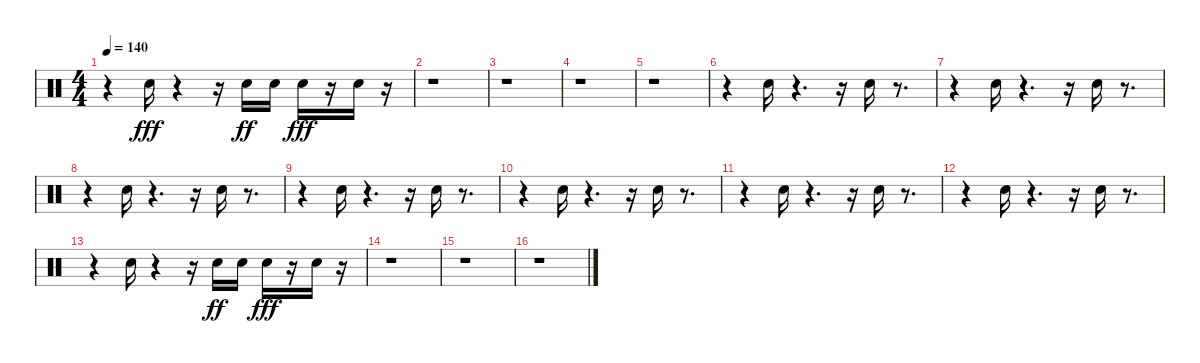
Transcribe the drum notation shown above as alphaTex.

\track "" {instrument percussion}
\staff {score}
\articulation defaults
\ts (4 4)
\tempo 140
\clef neutral
\ks c
r.4{dy fff} "Snare (hit) 2".16 r.4 r.16 "Snare (hit) 2".16{dy ff} "Snare (hit) 2".16 "Snare (hit) 2".16{dy fff} r.16 "Snare (hit) 2".16 r.16 |
r.1 |
r.1 |
r.1 |
r.1 |
r.4 "Snare (hit) 2".16 r.4{d} r.16 "Snare (hit) 2".16 r.8{d} |
r.4 "Snare (hit) 2".16 r.4{d} r.16 "Snare (hit) 2".16 r.8{d} |
r.4 "Snare (hit) 2".16 r.4{d} r.16 "Snare (hit) 2".16 r.8{d} |
r.4 "Snare (hit) 2".16 r.4{d} r.16 "Snare (hit) 2".16 r.8{d} |
r.4 "Snare (hit) 2".16 r.4{d} r.16 "Snare (hit) 2".16 r.8{d} |
r.4 "Snare (hit) 2".16 r.4{d} r.16 "Snare (hit) 2".16 r.8{d} |
r.4 "Snare (hit) 2".16 r.4{d} r.16 "Snare (hit) 2".16 r.8{d} |
r.4 "Snare (hit) 2".16 r.4 r.16 "Snare (hit) 2".16{dy ff} "Snare (hit) 2".16 "Snare (hit) 2".16{dy fff} r.16 "Snare (hit) 2".16 r.16 |
r.1 |
r.1 |
r.1
